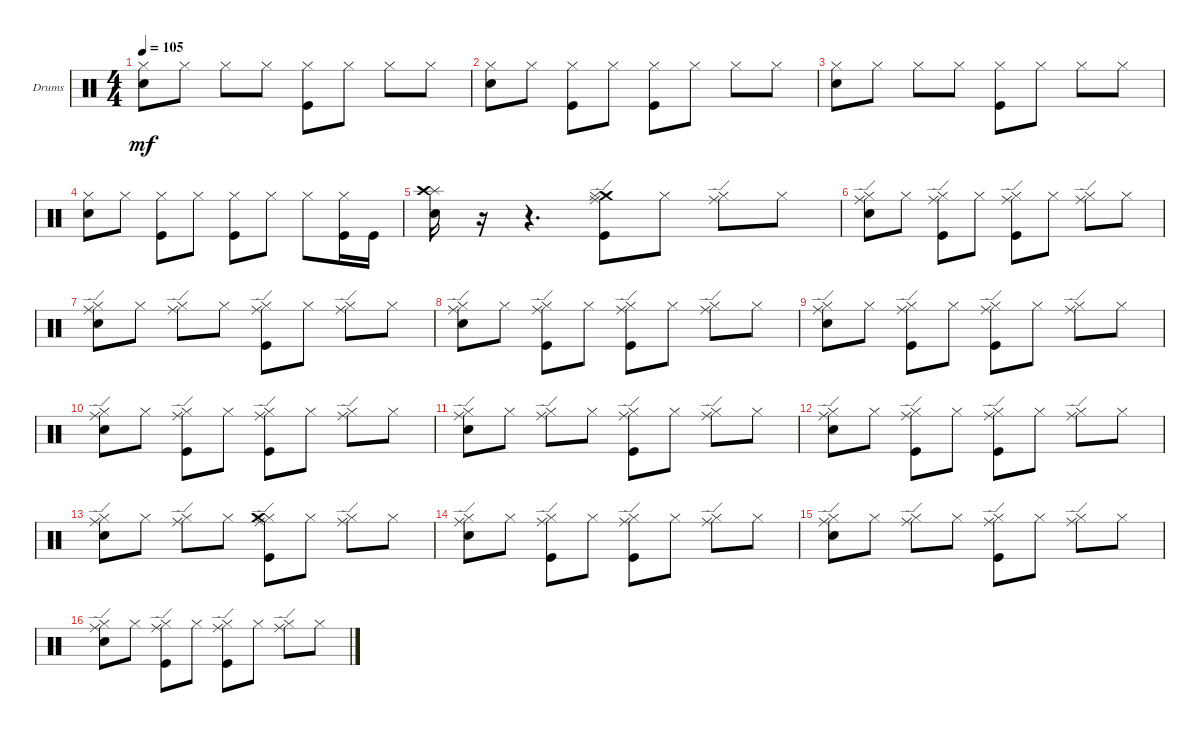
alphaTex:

\defaultSystemsLayout 4
\bracketExtendMode groupsimilarinstruments
\firstSystemTrackNameOrientation horizontal
\otherSystemsTrackNameOrientation horizontal
\track ("Drumkit" "Drums") {instrument percussion}
\staff {score}
\articulation defaults
\ts (4 4)
\tempo 105
\clef neutral
\scale
0.333333
\ks c
("Snare (hit) 2" "Hi-Hat (closed)").8{dy mf} "Hi-Hat (closed)".8 "Hi-Hat (closed)".8 "Hi-Hat (closed)".8 ("Kick (hit)" "Hi-Hat (closed)").8 "Hi-Hat (closed)".8 "Hi-Hat (closed)".8 "Hi-Hat (closed)".8 |
\scale
0.333333 ("Snare (hit) 2" "Hi-Hat (closed)").8 "Hi-Hat (closed)".8 ("Kick (hit)" "Hi-Hat (closed)").8 "Hi-Hat (closed)".8 ("Kick (hit)" "Hi-Hat (closed)").8 "Hi-Hat (closed)".8 "Hi-Hat (closed)".8 "Hi-Hat (closed)".8 |
\scale
0.333333 ("Snare (hit) 2" "Hi-Hat (closed)").8 "Hi-Hat (closed)".8 "Hi-Hat (closed)".8 "Hi-Hat (closed)".8 ("Kick (hit)" "Hi-Hat (closed)").8 "Hi-Hat (closed)".8 "Hi-Hat (closed)".8 "Hi-Hat (closed)".8 |
\scale
0.333333 ("Snare (hit) 2" "Hi-Hat (closed)").8 "Hi-Hat (closed)".8 ("Kick (hit)" "Hi-Hat (closed)").8 "Hi-Hat (closed)".8 ("Kick (hit)" "Hi-Hat (closed)").8 "Hi-Hat (closed)".8 "Hi-Hat (closed)".8 ("Kick (hit)" "Hi-Hat (closed)").16 "Kick (hit)".16 |
\scale
0.333333 ("Snare (hit) 2" "Splash (hit)" "Crash high (hit)").16 r.16 r.4{d} ("Kick (hit)" "Ride (edge)" "Crash medium (hit)" "Hi-Hat (closed)").8 "Hi-Hat (closed)".8 ("Hi-Hat (closed)" "Ride (edge)").8 "Hi-Hat (closed)".8 |
\scale
0.333333 ("Snare (hit) 2" "Hi-Hat (closed)" "Ride (edge)").8 "Hi-Hat (closed)".8 ("Kick (hit)" "Hi-Hat (closed)" "Ride (edge)").8 "Hi-Hat (closed)".8 ("Kick (hit)" "Hi-Hat (closed)" "Ride (edge)").8 "Hi-Hat (closed)".8 ("Hi-Hat (closed)" "Ride (edge)").8 "Hi-Hat (closed)".8 |
\scale
0.333333 ("Snare (hit) 2" "Hi-Hat (closed)" "Ride (edge)").8 "Hi-Hat (closed)".8 ("Hi-Hat (closed)" "Ride (edge)").8 "Hi-Hat (closed)".8 ("Kick (hit)" "Hi-Hat (closed)" "Ride (edge)").8 "Hi-Hat (closed)".8 ("Hi-Hat (closed)" "Ride (edge)").8 "Hi-Hat (closed)".8 |
\scale
0.333333 ("Snare (hit) 2" "Hi-Hat (closed)" "Ride (edge)").8 "Hi-Hat (closed)".8 ("Kick (hit)" "Hi-Hat (closed)" "Ride (edge)").8 "Hi-Hat (closed)".8 ("Kick (hit)" "Hi-Hat (closed)" "Ride (edge)").8 "Hi-Hat (closed)".8 ("Ride (edge)" "Hi-Hat (closed)").8 "Hi-Hat (closed)".8 |
\scale
0.333333 ("Snare (hit) 2" "Ride (edge)" "Hi-Hat (closed)").8 "Hi-Hat (closed)".8 ("Kick (hit)" "Ride (edge)" "Hi-Hat (closed)").8 "Hi-Hat (closed)".8 ("Kick (hit)" "Ride (edge)" "Hi-Hat (closed)").8 "Hi-Hat (closed)".8 ("Ride (edge)" "Hi-Hat (closed)").8 "Hi-Hat (closed)".8 |
\scale
0.333333 ("Snare (hit) 2" "Ride (edge)" "Hi-Hat (closed)").8 "Hi-Hat (closed)".8 ("Kick (hit)" "Ride (edge)" "Hi-Hat (closed)").8 "Hi-Hat (closed)".8 ("Kick (hit)" "Ride (edge)" "Hi-Hat (closed)").8 "Hi-Hat (closed)".8 ("Ride (edge)" "Hi-Hat (closed)").8 "Hi-Hat (closed)".8 |
\scale
0.333333 ("Snare (hit) 2" "Ride (edge)" "Hi-Hat (closed)").8 "Hi-Hat (closed)".8 ("Ride (edge)" "Hi-Hat (closed)").8 "Hi-Hat (closed)".8 ("Kick (hit)" "Ride (edge)" "Hi-Hat (closed)").8 "Hi-Hat (closed)".8 ("Ride (edge)" "Hi-Hat (closed)").8 "Hi-Hat (closed)".8 |
\scale
0.333333 ("Snare (hit) 2" "Ride (edge)" "Hi-Hat (closed)").8 "Hi-Hat (closed)".8 ("Kick (hit)" "Ride (edge)" "Hi-Hat (closed)").8 "Hi-Hat (closed)".8 ("Kick (hit)" "Ride (edge)" "Hi-Hat (closed)").8 "Hi-Hat (closed)".8 ("Ride (edge)" "Hi-Hat (closed)").8 "Hi-Hat (closed)".8 |
\scale
0.333333 ("Snare (hit) 2" "Ride (edge)" "Hi-Hat (closed)").8 "Hi-Hat (closed)".8 ("Ride (edge)" "Hi-Hat (closed)").8 "Hi-Hat (closed)".8 ("Kick (hit)" "Hi-Hat (closed)" "Ride (edge)" "Crash medium (hit)").8 "Hi-Hat (closed)".8 ("Hi-Hat (closed)" "Ride (edge)").8 "Hi-Hat (closed)".8 |
\scale
0.333333 ("Snare (hit) 2" "Hi-Hat (closed)" "Ride (edge)").8 "Hi-Hat (closed)".8 ("Kick (hit)" "Hi-Hat (closed)" "Ride (edge)").8 "Hi-Hat (closed)".8 ("Kick (hit)" "Hi-Hat (closed)" "Ride (edge)").8 "Hi-Hat (closed)".8 ("Hi-Hat (closed)" "Ride (edge)").8 "Hi-Hat (closed)".8 |
\scale
0.333333 ("Snare (hit) 2" "Hi-Hat (closed)" "Ride (edge)").8 "Hi-Hat (closed)".8 ("Hi-Hat (closed)" "Ride (edge)").8 "Hi-Hat (closed)".8 ("Kick (hit)" "Hi-Hat (closed)" "Ride (edge)").8 "Hi-Hat (closed)".8 ("Hi-Hat (closed)" "Ride (edge)").8 "Hi-Hat (closed)".8 |
\scale
0.333333 ("Snare (hit) 2" "Ride (edge)" "Hi-Hat (closed)").8 "Hi-Hat (closed)".8 ("Kick (hit)" "Ride (edge)" "Hi-Hat (closed)").8 "Hi-Hat (closed)".8 ("Kick (hit)" "Ride (edge)" "Hi-Hat (closed)").8 "Hi-Hat (closed)".8 ("Ride (edge)" "Hi-Hat (closed)").8 "Hi-Hat (closed)".8
